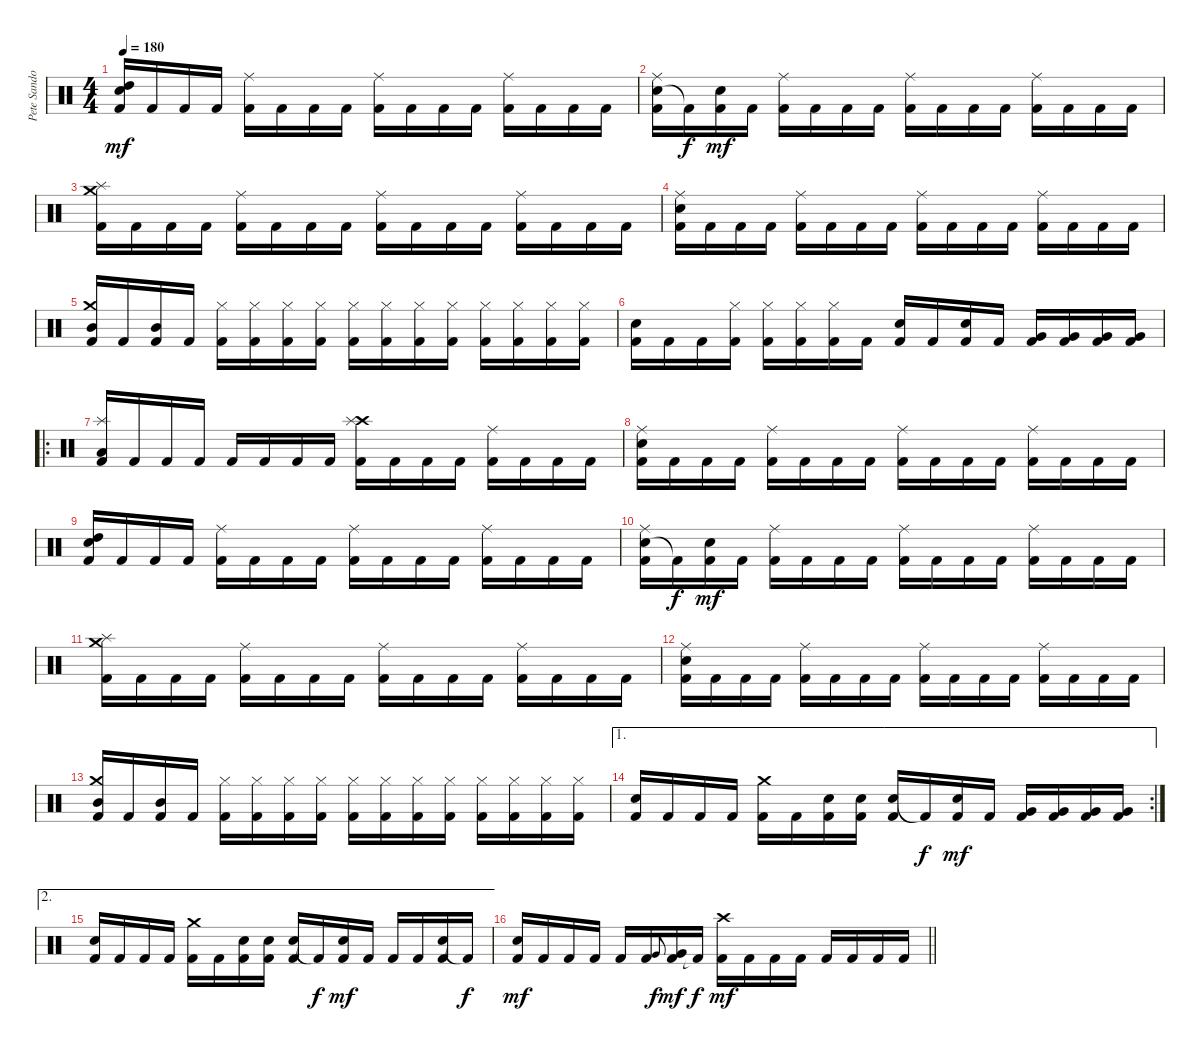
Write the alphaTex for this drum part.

\track ("Pete Sandoval" "Pete Sando") {instrument percussion}
\staff {score}
\articulation defaults
\ts (4 4)
\tempo 180
\clef neutral
\ks c
("Snare (hit) 2" "High Tom (hit)" "Kick (hit) 2").16{dy mf} "Kick (hit) 2".16 "Kick (hit) 2".16 "Kick (hit) 2".16 ("Ride (middle)" "Kick (hit) 2").16 "Kick (hit) 2".16 "Kick (hit) 2".16 "Kick (hit) 2".16 ("Ride (middle)" "Kick (hit) 2").16 "Kick (hit) 2".16 "Kick (hit) 2".16 "Kick (hit) 2".16 ("Ride (middle)" "Kick (hit) 2").16 "Kick (hit) 2".16 "Kick (hit) 2".16 "Kick (hit) 2".16 |
("Snare (hit) 2" "Ride (middle)" "Kick (hit) 2").16 "Kick (hit) 2"{t}.16{dy f} ("Snare (hit) 2" "Kick (hit) 2").16{dy mf} "Kick (hit) 2".16 ("Ride (middle)" "Kick (hit) 2").16 "Kick (hit) 2".16 "Kick (hit) 2".16 "Kick (hit) 2".16 ("Ride (middle)" "Kick (hit) 2").16 "Kick (hit) 2".16 "Kick (hit) 2".16 "Kick (hit) 2".16 ("Ride (middle)" "Kick (hit) 2").16 "Kick (hit) 2".16 "Kick (hit) 2".16 "Kick (hit) 2".16 |
("Crash medium (hit)" "Splash (hit)" "Kick (hit) 2").16 "Kick (hit) 2".16 "Kick (hit) 2".16 "Kick (hit) 2".16 ("Ride (middle)" "Kick (hit) 2").16 "Kick (hit) 2".16 "Kick (hit) 2".16 "Kick (hit) 2".16 ("Ride (middle)" "Kick (hit) 2").16 "Kick (hit) 2".16 "Kick (hit) 2".16 "Kick (hit) 2".16 ("Ride (middle)" "Kick (hit) 2").16 "Kick (hit) 2".16 "Kick (hit) 2".16 "Kick (hit) 2".16 |
("Snare (hit) 2" "Ride (middle)" "Kick (hit) 2").16 "Kick (hit) 2".16 "Kick (hit) 2".16 "Kick (hit) 2".16 ("Ride (middle)" "Kick (hit) 2").16 "Kick (hit) 2".16 "Kick (hit) 2".16 "Kick (hit) 2".16 ("Ride (middle)" "Kick (hit) 2").16 "Kick (hit) 2".16 "Kick (hit) 2".16 "Kick (hit) 2".16 ("Ride (middle)" "Kick (hit) 2").16 "Kick (hit) 2".16 "Kick (hit) 2".16 "Kick (hit) 2".16 |
("Crash medium (hit)" "Mid Tom (hit)" "Kick (hit) 2").16 "Kick (hit) 2".16 ("Mid Tom (hit)" "Kick (hit) 2").16 "Kick (hit) 2".16 ("Hi-Hat (closed)" "Kick (hit) 2").16 ("Hi-Hat (closed)" "Kick (hit) 2").16 ("Hi-Hat (closed)" "Kick (hit) 2").16 ("Hi-Hat (closed)" "Kick (hit) 2").16 ("Hi-Hat (closed)" "Kick (hit) 2").16 ("Hi-Hat (closed)" "Kick (hit) 2").16 ("Hi-Hat (closed)" "Kick (hit) 2").16 ("Hi-Hat (closed)" "Kick (hit) 2").16 ("Hi-Hat (closed)" "Kick (hit) 2").16 ("Hi-Hat (closed)" "Kick (hit) 2").16 ("Hi-Hat (closed)" "Kick (hit) 2").16 ("Hi-Hat (closed)" "Kick (hit) 2").16 |
("Snare (hit) 2" "Kick (hit) 2").16 "Kick (hit) 2".16 "Kick (hit) 2".16 ("Hi-Hat (closed)" "Kick (hit) 2").16 ("Hi-Hat (closed)" "Kick (hit) 2").16 ("Hi-Hat (closed)" "Kick (hit) 2").16 ("Hi-Hat (closed)" "Kick (hit) 2").16 "Kick (hit) 2".16 ("Snare (hit) 2" "Kick (hit) 2").16 "Kick (hit) 2".16 ("Snare (hit) 2" "Kick (hit) 2").16 "Kick (hit) 2".16 ("Very Low Tom (hit)" "Kick (hit) 2").16 ("Very Low Tom (hit)" "Kick (hit) 2").16 ("Very Low Tom (hit)" "Kick (hit) 2").16 ("Very Low Tom (hit)" "Kick (hit) 2").16 |
\ro
("Splash (hit)" "Low Floor Tom (hit)" "Kick (hit) 2").16 "Kick (hit) 2".16 "Kick (hit) 2".16 "Kick (hit) 2".16 "Kick (hit) 2".16 "Kick (hit) 2".16 "Kick (hit) 2".16 "Kick (hit) 2".16 ("Crash high (hit)" "Splash (hit)" "Kick (hit) 2").16 "Kick (hit) 2".16 "Kick (hit) 2".16 "Kick (hit) 2".16 ("Ride (middle)" "Kick (hit) 2").16 "Kick (hit) 2".16 "Kick (hit) 2".16 "Kick (hit) 2".16 |
("Snare (hit) 2" "Ride (middle)" "Kick (hit) 2").16 "Kick (hit) 2".16 "Kick (hit) 2".16 "Kick (hit) 2".16 ("Ride (middle)" "Kick (hit) 2").16 "Kick (hit) 2".16 "Kick (hit) 2".16 "Kick (hit) 2".16 ("Ride (middle)" "Kick (hit) 2").16 "Kick (hit) 2".16 "Kick (hit) 2".16 "Kick (hit) 2".16 ("Ride (middle)" "Kick (hit) 2").16 "Kick (hit) 2".16 "Kick (hit) 2".16 "Kick (hit) 2".16 |
("Snare (hit) 2" "High Tom (hit)" "Kick (hit) 2").16 "Kick (hit) 2".16 "Kick (hit) 2".16 "Kick (hit) 2".16 ("Ride (middle)" "Kick (hit) 2").16 "Kick (hit) 2".16 "Kick (hit) 2".16 "Kick (hit) 2".16 ("Ride (middle)" "Kick (hit) 2").16 "Kick (hit) 2".16 "Kick (hit) 2".16 "Kick (hit) 2".16 ("Ride (middle)" "Kick (hit) 2").16 "Kick (hit) 2".16 "Kick (hit) 2".16 "Kick (hit) 2".16 |
("Snare (hit) 2" "Ride (middle)" "Kick (hit) 2").16 "Kick (hit) 2"{t}.16{dy f} ("Snare (hit) 2" "Kick (hit) 2").16{dy mf} "Kick (hit) 2".16 ("Ride (middle)" "Kick (hit) 2").16 "Kick (hit) 2".16 "Kick (hit) 2".16 "Kick (hit) 2".16 ("Ride (middle)" "Kick (hit) 2").16 "Kick (hit) 2".16 "Kick (hit) 2".16 "Kick (hit) 2".16 ("Ride (middle)" "Kick (hit) 2").16 "Kick (hit) 2".16 "Kick (hit) 2".16 "Kick (hit) 2".16 |
("Crash medium (hit)" "Splash (hit)" "Kick (hit) 2").16 "Kick (hit) 2".16 "Kick (hit) 2".16 "Kick (hit) 2".16 ("Ride (middle)" "Kick (hit) 2").16 "Kick (hit) 2".16 "Kick (hit) 2".16 "Kick (hit) 2".16 ("Ride (middle)" "Kick (hit) 2").16 "Kick (hit) 2".16 "Kick (hit) 2".16 "Kick (hit) 2".16 ("Ride (middle)" "Kick (hit) 2").16 "Kick (hit) 2".16 "Kick (hit) 2".16 "Kick (hit) 2".16 |
("Snare (hit) 2" "Ride (middle)" "Kick (hit) 2").16 "Kick (hit) 2".16 "Kick (hit) 2".16 "Kick (hit) 2".16 ("Ride (middle)" "Kick (hit) 2").16 "Kick (hit) 2".16 "Kick (hit) 2".16 "Kick (hit) 2".16 ("Ride (middle)" "Kick (hit) 2").16 "Kick (hit) 2".16 "Kick (hit) 2".16 "Kick (hit) 2".16 ("Ride (middle)" "Kick (hit) 2").16 "Kick (hit) 2".16 "Kick (hit) 2".16 "Kick (hit) 2".16 |
("Crash medium (hit)" "Mid Tom (hit)" "Kick (hit) 2").16 "Kick (hit) 2".16 ("Mid Tom (hit)" "Kick (hit) 2").16 "Kick (hit) 2".16 ("Hi-Hat (closed)" "Kick (hit) 2").16 ("Hi-Hat (closed)" "Kick (hit) 2").16 ("Hi-Hat (closed)" "Kick (hit) 2").16 ("Hi-Hat (closed)" "Kick (hit) 2").16 ("Hi-Hat (closed)" "Kick (hit) 2").16 ("Hi-Hat (closed)" "Kick (hit) 2").16 ("Hi-Hat (closed)" "Kick (hit) 2").16 ("Hi-Hat (closed)" "Kick (hit) 2").16 ("Hi-Hat (closed)" "Kick (hit) 2").16 ("Hi-Hat (closed)" "Kick (hit) 2").16 ("Hi-Hat (closed)" "Kick (hit) 2").16 ("Hi-Hat (closed)" "Kick (hit) 2").16 |
\ae 1
\rc 2
("Snare (hit) 2" "Kick (hit) 2").16 "Kick (hit) 2".16 "Kick (hit) 2".16 "Kick (hit) 2".16 ("Crash medium (hit)" "Kick (hit) 2").16 "Kick (hit) 2".16 ("Snare (hit) 2" "Kick (hit) 2").16 ("Snare (hit) 2" "Kick (hit) 2").16 ("Snare (hit) 2" "Kick (hit) 2").16 "Kick (hit) 2"{t}.16{dy f} ("Snare (hit) 2" "Kick (hit) 2").16{dy mf} "Kick (hit) 2".16 ("Very Low Tom (hit)" "Kick (hit) 2").16 ("Very Low Tom (hit)" "Kick (hit) 2").16 ("Very Low Tom (hit)" "Kick (hit) 2").16 ("Very Low Tom (hit)" "Kick (hit) 2").16 |
\ae 2
("Snare (hit) 2" "Kick (hit) 2").16 "Kick (hit) 2".16 "Kick (hit) 2".16 "Kick (hit) 2".16 ("Crash medium (hit)" "Kick (hit) 2").16 "Kick (hit) 2".16 ("Snare (hit) 2" "Kick (hit) 2").16 ("Snare (hit) 2" "Kick (hit) 2").16 ("Snare (hit) 2" "Kick (hit) 2").16 "Kick (hit) 2"{t}.16{dy f} ("Snare (hit) 2" "Kick (hit) 2").16{dy mf} "Kick (hit) 2".16 "Kick (hit) 2".16 "Kick (hit) 2".16 ("Snare (hit) 2" "Kick (hit) 2").16 "Kick (hit) 2"{t}.16{dy f} |
\barLineRight lightlight
("Snare (hit) 2" "Kick (hit) 2").16{dy mf} "Kick (hit) 2".16 "Kick (hit) 2".16 "Kick (hit) 2".16 "Kick (hit) 2".16 "Kick (hit) 2".16 "Very Low Tom (hit)".8{gr onbeat dy f} ("Very Low Tom (hit)" "Kick (hit) 2").16{dy mf} "Kick (hit) 2"{t}.16{dy f} ("Crash high (hit)" "Kick (hit) 2").16{dy mf} "Kick (hit) 2".16 "Kick (hit) 2".16 "Kick (hit) 2".16 "Kick (hit) 2".16 "Kick (hit) 2".16 "Kick (hit) 2".16 "Kick (hit) 2".16
